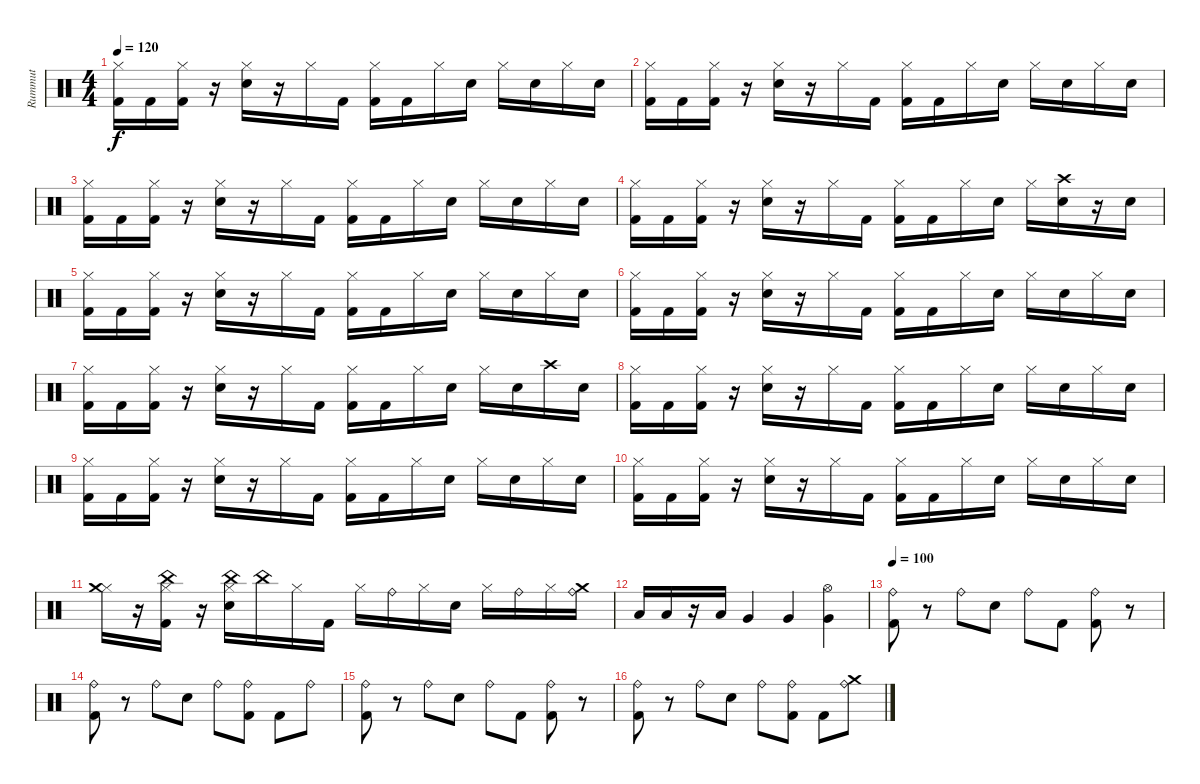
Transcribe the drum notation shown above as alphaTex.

\track ("Rummut" "Rummut") {instrument percussion}
\staff {score}
\articulation defaults
\ts (4 4)
\tempo 120
\clef neutral
\ks c
("Hi-Hat (closed)" "Kick (hit) 2").16{dy f} "Kick (hit) 2".16 ("Hi-Hat (closed)" "Kick (hit) 2").16 r.16 ("Hi-Hat (closed)" "Snare (hit) 2").16 r.16 "Hi-Hat (closed)".16 "Kick (hit) 2".16 ("Hi-Hat (closed)" "Kick (hit) 2").16 "Kick (hit) 2".16 "Hi-Hat (closed)".16 "Snare (hit) 2".16 "Hi-Hat (closed)".16 "Snare (hit) 2".16 "Hi-Hat (closed)".16 "Snare (hit) 2".16 |
("Hi-Hat (closed)" "Kick (hit) 2").16 "Kick (hit) 2".16 ("Hi-Hat (closed)" "Kick (hit) 2").16 r.16 ("Hi-Hat (closed)" "Snare (hit) 2").16 r.16 "Hi-Hat (closed)".16 "Kick (hit) 2".16 ("Hi-Hat (closed)" "Kick (hit) 2").16 "Kick (hit) 2".16 "Hi-Hat (closed)".16 "Snare (hit) 2".16 "Hi-Hat (closed)".16 "Snare (hit) 2".16 "Hi-Hat (closed)".16 "Snare (hit) 2".16 |
("Hi-Hat (closed)" "Kick (hit) 2").16 "Kick (hit) 2".16 ("Hi-Hat (closed)" "Kick (hit) 2").16 r.16 ("Hi-Hat (closed)" "Snare (hit) 2").16 r.16 "Hi-Hat (closed)".16 "Kick (hit) 2".16 ("Hi-Hat (closed)" "Kick (hit) 2").16 "Kick (hit) 2".16 "Hi-Hat (closed)".16 "Snare (hit) 2".16 "Hi-Hat (closed)".16 "Snare (hit) 2".16 "Hi-Hat (closed)".16 "Snare (hit) 2".16 |
("Hi-Hat (closed)" "Kick (hit) 2").16 "Kick (hit) 2".16 ("Hi-Hat (closed)" "Kick (hit) 2").16 r.16 ("Hi-Hat (closed)" "Snare (hit) 2").16 r.16 "Hi-Hat (closed)".16 "Kick (hit) 2".16 ("Hi-Hat (closed)" "Kick (hit) 2").16 "Kick (hit) 2".16 "Hi-Hat (closed)".16 "Snare (hit) 2".16 "Hi-Hat (closed)".16 ("Crash high (hit)" "Snare (hit) 2").16 r.16 "Snare (hit) 2".16 |
("Hi-Hat (closed)" "Kick (hit) 2").16 "Kick (hit) 2".16 ("Hi-Hat (closed)" "Kick (hit) 2").16 r.16 ("Hi-Hat (closed)" "Snare (hit) 2").16 r.16 "Hi-Hat (closed)".16 "Kick (hit) 2".16 ("Hi-Hat (closed)" "Kick (hit) 2").16 "Kick (hit) 2".16 "Hi-Hat (closed)".16 "Snare (hit) 2".16 "Hi-Hat (closed)".16 "Snare (hit) 2".16 "Hi-Hat (closed)".16 "Snare (hit) 2".16 |
("Hi-Hat (closed)" "Kick (hit) 2").16 "Kick (hit) 2".16 ("Hi-Hat (closed)" "Kick (hit) 2").16 r.16 ("Hi-Hat (closed)" "Snare (hit) 2").16 r.16 "Hi-Hat (closed)".16 "Kick (hit) 2".16 ("Hi-Hat (closed)" "Kick (hit) 2").16 "Kick (hit) 2".16 "Hi-Hat (closed)".16 "Snare (hit) 2".16 "Hi-Hat (closed)".16 "Snare (hit) 2".16 "Hi-Hat (closed)".16 "Snare (hit) 2".16 |
("Hi-Hat (closed)" "Kick (hit) 2").16 "Kick (hit) 2".16 ("Hi-Hat (closed)" "Kick (hit) 2").16 r.16 ("Hi-Hat (closed)" "Snare (hit) 2").16 r.16 "Hi-Hat (closed)".16 "Kick (hit) 2".16 ("Hi-Hat (closed)" "Kick (hit) 2").16 "Kick (hit) 2".16 "Hi-Hat (closed)".16 "Snare (hit) 2".16 "Hi-Hat (closed)".16 "Snare (hit) 2".16 "Crash high (hit)".16 "Snare (hit) 2".16 |
("Hi-Hat (closed)" "Kick (hit) 2").16 "Kick (hit) 2".16 ("Hi-Hat (closed)" "Kick (hit) 2").16 r.16 ("Hi-Hat (closed)" "Snare (hit) 2").16 r.16 "Hi-Hat (closed)".16 "Kick (hit) 2".16 ("Hi-Hat (closed)" "Kick (hit) 2").16 "Kick (hit) 2".16 "Hi-Hat (closed)".16 "Snare (hit) 2".16 "Hi-Hat (closed)".16 "Snare (hit) 2".16 "Hi-Hat (closed)".16 "Snare (hit) 2".16 |
("Hi-Hat (closed)" "Kick (hit) 2").16 "Kick (hit) 2".16 ("Hi-Hat (closed)" "Kick (hit) 2").16 r.16 ("Hi-Hat (closed)" "Snare (hit) 2").16 r.16 "Hi-Hat (closed)".16 "Kick (hit) 2".16 ("Hi-Hat (closed)" "Kick (hit) 2").16 "Kick (hit) 2".16 "Hi-Hat (closed)".16 "Snare (hit) 2".16 "Hi-Hat (closed)".16 "Snare (hit) 2".16 "Hi-Hat (closed)".16 "Snare (hit) 2".16 |
("Hi-Hat (closed)" "Kick (hit) 2").16 "Kick (hit) 2".16 ("Hi-Hat (closed)" "Kick (hit) 2").16 r.16 ("Hi-Hat (closed)" "Snare (hit) 2").16 r.16 "Hi-Hat (closed)".16 "Kick (hit) 2".16 ("Hi-Hat (closed)" "Kick (hit) 2").16 "Kick (hit) 2".16 "Hi-Hat (closed)".16 "Snare (hit) 2".16 "Hi-Hat (closed)".16 "Snare (hit) 2".16 "Hi-Hat (closed)".16 "Snare (hit) 2".16 |
("Hi-Hat (closed)" "Crash medium (hit)").16 r.16 ("Hi-Hat (closed)" "Kick (hit) 2" "China (hit)").16 r.16 ("Hi-Hat (closed)" "Snare (hit) 2" "China (hit)").16 "China (hit)".16 "Hi-Hat (closed)".16 "Kick (hit) 2".16 "Hi-Hat (closed)".16 "Ride (bell)".16 "Hi-Hat (closed)".16 "Snare (hit) 2".16 "Hi-Hat (closed)".16 "Ride (bell)".16 "Hi-Hat (closed)".16 ("Crash medium (hit)" "Ride (bell)").16 |
"Low Tom (hit)".16 "Low Tom (hit)".16 r.16 "Low Tom (hit)".16 "Very Low Tom (hit)".4 "Very Low Tom (hit)".4 ("Very Low Tom (hit)" "Hi-Hat (open)").4 |
\tempo 100
("Ride (bell)" "Kick (hit) 2").8 r.8 "Ride (bell)".8 "Snare (hit) 2".8 "Ride (bell)".8 "Kick (hit) 2".8 ("Ride (bell)" "Kick (hit) 2").8 r.8 |
("Ride (bell)" "Kick (hit) 2").8 r.8 "Ride (bell)".8 "Snare (hit) 2".8 "Ride (bell)".8 ("Ride (bell)" "Kick (hit) 2").8 "Kick (hit) 2".8 "Ride (bell)".8 |
("Ride (bell)" "Kick (hit) 2").8 r.8 "Ride (bell)".8 "Snare (hit) 2".8 "Ride (bell)".8 "Kick (hit) 2".8 ("Ride (bell)" "Kick (hit) 2").8 r.8 |
("Ride (bell)" "Kick (hit) 2").8 r.8 "Ride (bell)".8 "Snare (hit) 2".8 "Ride (bell)".8 ("Ride (bell)" "Kick (hit) 2").8 "Kick (hit) 2".8 ("Ride (bell)" "Crash medium (hit)").8
